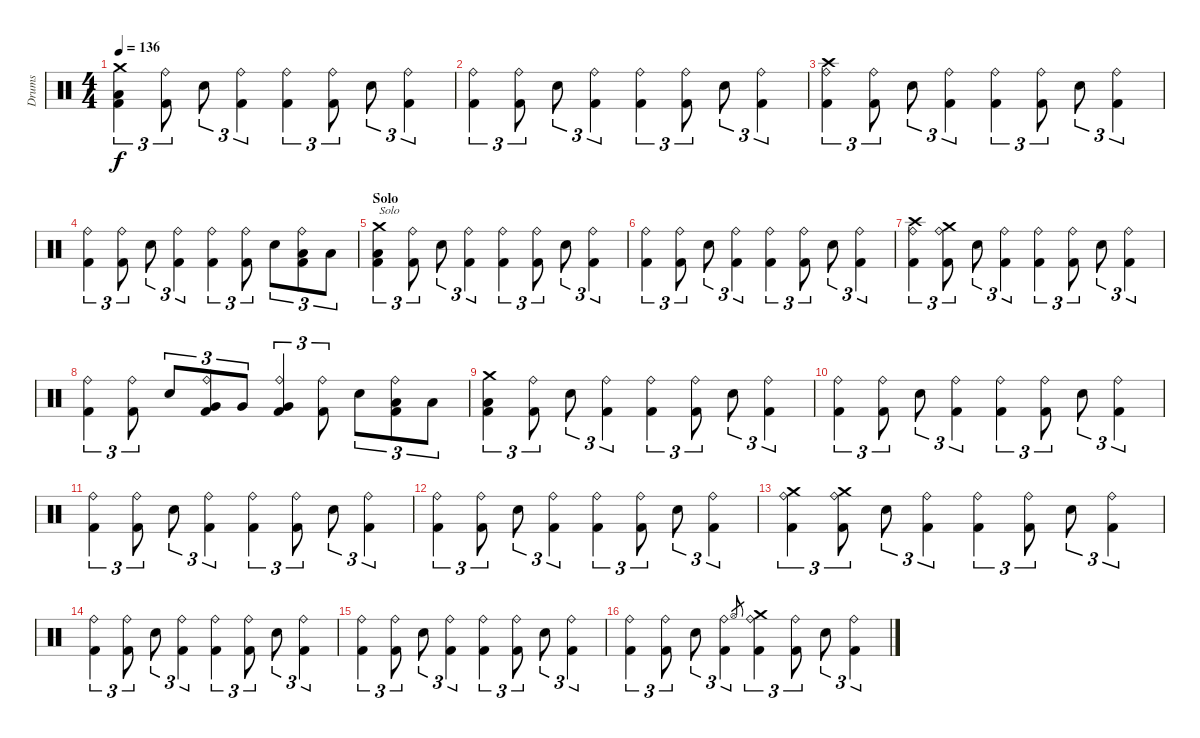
\track ("Drums" "Drums") {instrument percussion}
\staff {score}
\articulation defaults
\ts (4 4)
\tempo 136
\clef neutral
\ks c
("Crash medium (hit)" "Low Floor Tom (hit)" "Kick (hit) 2").4{tu (3 2) dy f} ("Ride (bell)" "Kick (hit) 2").8{tu (3 2)} "Electric Snare (hit)".8{tu (3 2)} ("Ride (bell)" "Kick (hit) 2").4{tu (3 2)} ("Ride (bell)" "Kick (hit) 2").4{tu (3 2)} ("Ride (bell)" "Kick (hit) 2").8{tu (3 2)} "Electric Snare (hit)".8{tu (3 2)} ("Ride (bell)" "Kick (hit) 2").4{tu (3 2)} |
("Ride (bell)" "Kick (hit) 2").4{tu (3 2)} ("Ride (bell)" "Kick (hit) 2").8{tu (3 2)} "Electric Snare (hit)".8{tu (3 2)} ("Ride (bell)" "Kick (hit) 2").4{tu (3 2)} ("Ride (bell)" "Kick (hit) 2").4{tu (3 2)} ("Ride (bell)" "Kick (hit) 2").8{tu (3 2)} "Electric Snare (hit)".8{tu (3 2)} ("Ride (bell)" "Kick (hit) 2").4{tu (3 2)} |
("Crash high (hit)" "Ride (bell)" "Kick (hit) 2").4{tu (3 2)} ("Ride (bell)" "Kick (hit) 2").8{tu (3 2)} "Electric Snare (hit)".8{tu (3 2)} ("Ride (bell)" "Kick (hit) 2").4{tu (3 2)} ("Ride (bell)" "Kick (hit) 2").4{tu (3 2)} ("Ride (bell)" "Kick (hit) 2").8{tu (3 2)} "Electric Snare (hit)".8{tu (3 2)} ("Ride (bell)" "Kick (hit) 2").4{tu (3 2)} |
("Ride (bell)" "Kick (hit) 2").4{tu (3 2)} ("Ride (bell)" "Kick (hit) 2").8{tu (3 2)} "Electric Snare (hit)".8{tu (3 2)} ("Ride (bell)" "Kick (hit) 2").4{tu (3 2)} ("Ride (bell)" "Kick (hit) 2").4{tu (3 2)} ("Ride (bell)" "Kick (hit) 2").8{tu (3 2)} "Electric Snare (hit)".8{tu (3 2)} ("Ride (bell)" "Low Floor Tom (hit)" "Kick (hit) 2").8{tu (3 2)} "Low Floor Tom (hit)".8{tu (3 2)} |
\section ("" "Solo")
("Crash medium (hit)" "Low Floor Tom (hit)" "Kick (hit) 2").4{tu (3 2) txt "Solo"} ("Ride (bell)" "Kick (hit) 2").8{tu (3 2)} "Electric Snare (hit)".8{tu (3 2)} ("Ride (bell)" "Kick (hit) 2").4{tu (3 2)} ("Ride (bell)" "Kick (hit) 2").4{tu (3 2)} ("Ride (bell)" "Kick (hit) 2").8{tu (3 2)} "Electric Snare (hit)".8{tu (3 2)} ("Ride (bell)" "Kick (hit) 2").4{tu (3 2)} |
("Ride (bell)" "Kick (hit) 2").4{tu (3 2)} ("Ride (bell)" "Kick (hit) 2").8{tu (3 2)} "Electric Snare (hit)".8{tu (3 2)} ("Ride (bell)" "Kick (hit) 2").4{tu (3 2)} ("Ride (bell)" "Kick (hit) 2").4{tu (3 2)} ("Ride (bell)" "Kick (hit) 2").8{tu (3 2)} "Electric Snare (hit)".8{tu (3 2)} ("Ride (bell)" "Kick (hit) 2").4{tu (3 2)} |
("Crash high (hit)" "Ride (bell)" "Kick (hit) 2").4{tu (3 2)} ("Crash medium (hit)" "Ride (bell)" "Kick (hit) 2").8{tu (3 2)} "Electric Snare (hit)".8{tu (3 2)} ("Ride (bell)" "Kick (hit) 2").4{tu (3 2)} ("Ride (bell)" "Kick (hit) 2").4{tu (3 2)} ("Ride (bell)" "Kick (hit) 2").8{tu (3 2)} "Electric Snare (hit)".8{tu (3 2)} ("Ride (bell)" "Kick (hit) 2").4{tu (3 2)} |
("Ride (bell)" "Kick (hit) 2").4{tu (3 2)} ("Ride (bell)" "Kick (hit) 2").8{tu (3 2)} "Electric Snare (hit)".8{tu (3 2)} ("Ride (bell)" "Very Low Tom (hit)" "Kick (hit) 2").8{tu (3 2)} "Very Low Tom (hit)".8{tu (3 2)} ("Ride (bell)" "Very Low Tom (hit)" "Kick (hit) 2").4{tu (3 2)} ("Ride (bell)" "Kick (hit) 2").8{tu (3 2)} "Electric Snare (hit)".8{tu (3 2)} ("Ride (bell)" "Low Floor Tom (hit)" "Kick (hit) 2").8{tu (3 2)} "Low Floor Tom (hit)".8{tu (3 2)} |
("Crash medium (hit)" "Low Floor Tom (hit)" "Kick (hit) 2").4{tu (3 2)} ("Ride (bell)" "Kick (hit) 2").8{tu (3 2)} "Electric Snare (hit)".8{tu (3 2)} ("Ride (bell)" "Kick (hit) 2").4{tu (3 2)} ("Ride (bell)" "Kick (hit) 2").4{tu (3 2)} ("Ride (bell)" "Kick (hit) 2").8{tu (3 2)} "Electric Snare (hit)".8{tu (3 2)} ("Ride (bell)" "Kick (hit) 2").4{tu (3 2)} |
("Ride (bell)" "Kick (hit) 2").4{tu (3 2)} ("Ride (bell)" "Kick (hit) 2").8{tu (3 2)} "Electric Snare (hit)".8{tu (3 2)} ("Ride (bell)" "Kick (hit) 2").4{tu (3 2)} ("Ride (bell)" "Kick (hit) 2").4{tu (3 2)} ("Ride (bell)" "Kick (hit) 2").8{tu (3 2)} "Electric Snare (hit)".8{tu (3 2)} ("Ride (bell)" "Kick (hit) 2").4{tu (3 2)} |
("Ride (bell)" "Kick (hit) 2").4{tu (3 2)} ("Ride (bell)" "Kick (hit) 2").8{tu (3 2)} "Electric Snare (hit)".8{tu (3 2)} ("Ride (bell)" "Kick (hit) 2").4{tu (3 2)} ("Ride (bell)" "Kick (hit) 2").4{tu (3 2)} ("Ride (bell)" "Kick (hit) 2").8{tu (3 2)} "Electric Snare (hit)".8{tu (3 2)} ("Ride (bell)" "Kick (hit) 2").4{tu (3 2)} |
("Ride (bell)" "Kick (hit) 2").4{tu (3 2)} ("Ride (bell)" "Kick (hit) 2").8{tu (3 2)} "Electric Snare (hit)".8{tu (3 2)} ("Ride (bell)" "Kick (hit) 2").4{tu (3 2)} ("Ride (bell)" "Kick (hit) 2").4{tu (3 2)} ("Ride (bell)" "Kick (hit) 2").8{tu (3 2)} "Electric Snare (hit)".8{tu (3 2)} ("Ride (bell)" "Kick (hit) 2").4{tu (3 2)} |
("Crash medium (hit)" "Ride (bell)" "Kick (hit) 2").4{tu (3 2)} ("Crash medium (hit)" "Ride (bell)" "Kick (hit) 2").8{tu (3 2)} "Electric Snare (hit)".8{tu (3 2)} ("Ride (bell)" "Kick (hit) 2").4{tu (3 2)} ("Ride (bell)" "Kick (hit) 2").4{tu (3 2)} ("Ride (bell)" "Kick (hit) 2").8{tu (3 2)} "Electric Snare (hit)".8{tu (3 2)} ("Ride (bell)" "Kick (hit) 2").4{tu (3 2)} |
("Ride (bell)" "Kick (hit) 2").4{tu (3 2)} ("Ride (bell)" "Kick (hit) 2").8{tu (3 2)} "Electric Snare (hit)".8{tu (3 2)} ("Ride (bell)" "Kick (hit) 2").4{tu (3 2)} ("Ride (bell)" "Kick (hit) 2").4{tu (3 2)} ("Ride (bell)" "Kick (hit) 2").8{tu (3 2)} "Electric Snare (hit)".8{tu (3 2)} ("Ride (bell)" "Kick (hit) 2").4{tu (3 2)} |
("Ride (bell)" "Kick (hit) 2").4{tu (3 2)} ("Ride (bell)" "Kick (hit) 2").8{tu (3 2)} "Electric Snare (hit)".8{tu (3 2)} ("Ride (bell)" "Kick (hit) 2").4{tu (3 2)} ("Ride (bell)" "Kick (hit) 2").4{tu (3 2)} ("Ride (bell)" "Kick (hit) 2").8{tu (3 2)} "Electric Snare (hit)".8{tu (3 2)} ("Ride (bell)" "Kick (hit) 2").4{tu (3 2)} |
("Ride (bell)" "Kick (hit) 2").4{tu (3 2)} ("Ride (bell)" "Kick (hit) 2").8{tu (3 2)} "Electric Snare (hit)".8{tu (3 2)} ("Ride (bell)" "Kick (hit) 2").4{tu (3 2)} "Hi-Hat (open)".8{gr} ("Crash medium (hit)" "Ride (bell)" "Kick (hit) 2").4{tu (3 2)} ("Ride (bell)" "Kick (hit) 2").8{tu (3 2)} "Electric Snare (hit)".8{tu (3 2)} ("Ride (bell)" "Kick (hit) 2").4{tu (3 2)}
